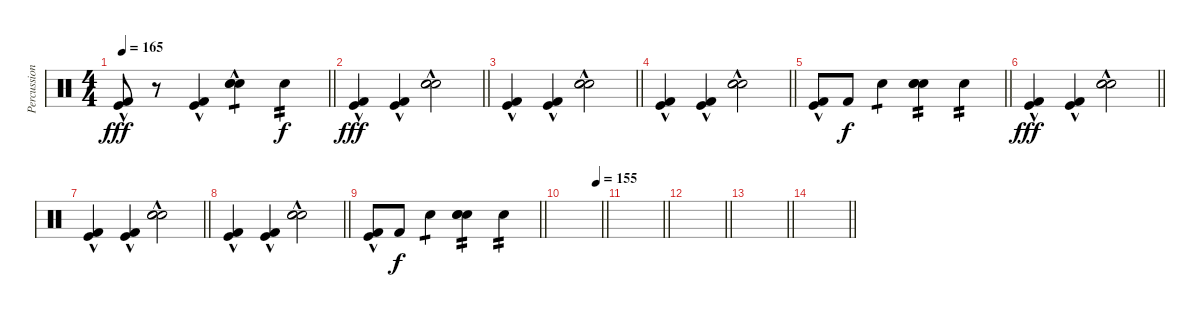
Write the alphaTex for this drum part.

\track ("Percussion" "Percussion") {instrument percussion}
\staff {score}
\articulation defaults
\ts (4 4)
\tempo 165
\clef neutral
\barLineRight lightlight
\ks c
("Kick (hit) 2"{hac} "Kick (hit)"{hac}).8{dy fff} r.8 ("Kick (hit) 2"{hac} "Kick (hit)"{hac}).4 ("Snare (hit) 2" "Hand Clap (hit)"{hac} "Electric Snare (hit)").4{tp 1} "Electric Snare (hit)".4{tp 2 dy f} |
\barLineRight lightlight
("Kick (hit) 2"{hac} "Kick (hit)"{hac}).4{dy fff} ("Kick (hit) 2"{hac} "Kick (hit)"{hac}).4 ("Snare (hit) 2" "Hand Clap (hit)"{hac} "Electric Snare (hit)").2 |
\barLineRight lightlight
("Kick (hit) 2"{hac} "Kick (hit)"{hac}).4 ("Kick (hit) 2"{hac} "Kick (hit)"{hac}).4 ("Snare (hit) 2" "Hand Clap (hit)"{hac} "Electric Snare (hit)").2 |
\barLineRight lightlight
("Kick (hit) 2"{hac} "Kick (hit)"{hac}).4 ("Kick (hit) 2"{hac} "Kick (hit)"{hac}).4 ("Snare (hit) 2" "Hand Clap (hit)"{hac} "Electric Snare (hit)").2 |
\barLineRight lightlight
("Kick (hit) 2"{hac} "Kick (hit)"{hac}).8 "Kick (hit) 2".8{dy f} "Electric Snare (hit)".4{tp 1} ("Snare (hit) 2" "Hand Clap (hit)" "Electric Snare (hit)").4{tp 2} "Electric Snare (hit)".4{tp 2} |
\barLineRight lightlight
("Kick (hit) 2"{hac} "Kick (hit)"{hac}).4{dy fff} ("Kick (hit) 2"{hac} "Kick (hit)"{hac}).4 ("Snare (hit) 2" "Hand Clap (hit)"{hac} "Electric Snare (hit)").2 |
\barLineRight lightlight
("Kick (hit) 2"{hac} "Kick (hit)"{hac}).4 ("Kick (hit) 2"{hac} "Kick (hit)"{hac}).4 ("Snare (hit) 2" "Hand Clap (hit)"{hac} "Electric Snare (hit)").2 |
\barLineRight lightlight
("Kick (hit) 2"{hac} "Kick (hit)"{hac}).4 ("Kick (hit) 2"{hac} "Kick (hit)"{hac}).4 ("Snare (hit) 2" "Hand Clap (hit)"{hac} "Electric Snare (hit)").2 |
\barLineRight lightlight
("Kick (hit) 2"{hac} "Kick (hit)"{hac}).8 "Kick (hit) 2".8{dy f} "Electric Snare (hit)".4{tp 1} ("Snare (hit) 2" "Hand Clap (hit)" "Electric Snare (hit)").4{tp 2} "Electric Snare (hit)".4{tp 2} |
\tempo (155 0.875)
\barLineRight lightlight
|
\barLineRight lightlight
|
\barLineRight lightlight
|
\barLineRight lightlight
|
\barLineRight lightlight
